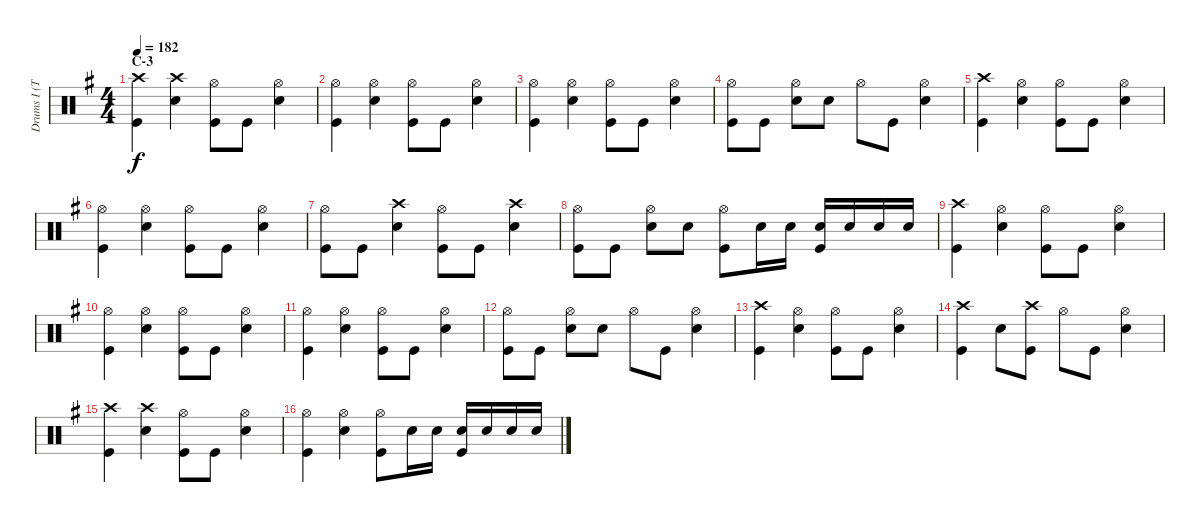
\track ("Drums I (Tainaka Ritsu)" "Drums I (T") {instrument percussion}
\staff {score}
\articulation defaults
\ts (4 4)
\section ("" "C-3")
\tempo 182
\clef neutral
\ks g
("Crash high (hit)" "Kick (hit)").4{dy f} ("Crash high (hit)" "Snare (hit) 2").4 ("Hi-Hat (open)" "Kick (hit)").8 "Kick (hit)".8 ("Hi-Hat (open)" "Snare (hit) 2").4 |
("Hi-Hat (open)" "Kick (hit)").4 ("Hi-Hat (open)" "Snare (hit) 2").4 ("Hi-Hat (open)" "Kick (hit)").8 "Kick (hit)".8 ("Hi-Hat (open)" "Snare (hit) 2").4 |
("Hi-Hat (open)" "Kick (hit)").4 ("Hi-Hat (open)" "Snare (hit) 2").4 ("Hi-Hat (open)" "Kick (hit)").8 "Kick (hit)".8 ("Hi-Hat (open)" "Snare (hit) 2").4 |
("Hi-Hat (open)" "Kick (hit)").8 "Kick (hit)".8 ("Hi-Hat (open)" "Snare (hit) 2").8 "Snare (hit) 2".8 "Hi-Hat (open)".8 "Kick (hit)".8 ("Hi-Hat (open)" "Snare (hit) 2").4 |
("Crash high (hit)" "Kick (hit)").4 ("Hi-Hat (open)" "Snare (hit) 2").4 ("Hi-Hat (open)" "Kick (hit)").8 "Kick (hit)".8 ("Hi-Hat (open)" "Snare (hit) 2").4 |
("Hi-Hat (open)" "Kick (hit)").4 ("Hi-Hat (open)" "Snare (hit) 2").4 ("Hi-Hat (open)" "Kick (hit)").8 "Kick (hit)".8 ("Hi-Hat (open)" "Snare (hit) 2").4 |
("Hi-Hat (open)" "Kick (hit)").8 "Kick (hit)".8 ("Crash high (hit)" "Snare (hit) 2").4 ("Hi-Hat (open)" "Kick (hit)").8 "Kick (hit)".8 ("Crash high (hit)" "Snare (hit) 2").4 |
("Hi-Hat (open)" "Kick (hit)").8 "Kick (hit)".8 ("Hi-Hat (open)" "Snare (hit) 2").8 "Snare (hit) 2".8 ("Hi-Hat (open)" "Kick (hit)").8 "Snare (hit) 2".16 "Snare (hit) 2".16 ("Snare (hit) 2" "Kick (hit)").16 "Snare (hit) 2".16 "Snare (hit) 2".16 "Snare (hit) 2".16 |
("Crash high (hit)" "Kick (hit)").4 ("Hi-Hat (open)" "Snare (hit) 2").4 ("Hi-Hat (open)" "Kick (hit)").8 "Kick (hit)".8 ("Hi-Hat (open)" "Snare (hit) 2").4 |
("Hi-Hat (open)" "Kick (hit)").4 ("Hi-Hat (open)" "Snare (hit) 2").4 ("Hi-Hat (open)" "Kick (hit)").8 "Kick (hit)".8 ("Hi-Hat (open)" "Snare (hit) 2").4 |
("Hi-Hat (open)" "Kick (hit)").4 ("Hi-Hat (open)" "Snare (hit) 2").4 ("Hi-Hat (open)" "Kick (hit)").8 "Kick (hit)".8 ("Hi-Hat (open)" "Snare (hit) 2").4 |
("Hi-Hat (open)" "Kick (hit)").8 "Kick (hit)".8 ("Hi-Hat (open)" "Snare (hit) 2").8 "Snare (hit) 2".8 "Hi-Hat (open)".8 "Kick (hit)".8 ("Hi-Hat (open)" "Snare (hit) 2").4 |
("Crash high (hit)" "Kick (hit)").4 ("Hi-Hat (open)" "Snare (hit) 2").4 ("Hi-Hat (open)" "Kick (hit)").8 "Kick (hit)".8 ("Hi-Hat (open)" "Snare (hit) 2").4 |
("Crash high (hit)" "Kick (hit)").4 "Snare (hit) 2".8 ("Crash high (hit)" "Kick (hit)").8 "Hi-Hat (open)".8 "Kick (hit)".8 ("Hi-Hat (open)" "Snare (hit) 2").4 |
("Crash high (hit)" "Kick (hit)").4 ("Crash high (hit)" "Snare (hit) 2").4 ("Hi-Hat (open)" "Kick (hit)").8 "Kick (hit)".8 ("Hi-Hat (open)" "Snare (hit) 2").4 |
("Hi-Hat (open)" "Kick (hit)").4 ("Hi-Hat (open)" "Snare (hit) 2").4 ("Hi-Hat (open)" "Kick (hit)").8 "Snare (hit) 2".16 "Snare (hit) 2".16 ("Snare (hit) 2" "Kick (hit)").16 "Snare (hit) 2".16 "Snare (hit) 2".16 "Snare (hit) 2".16
